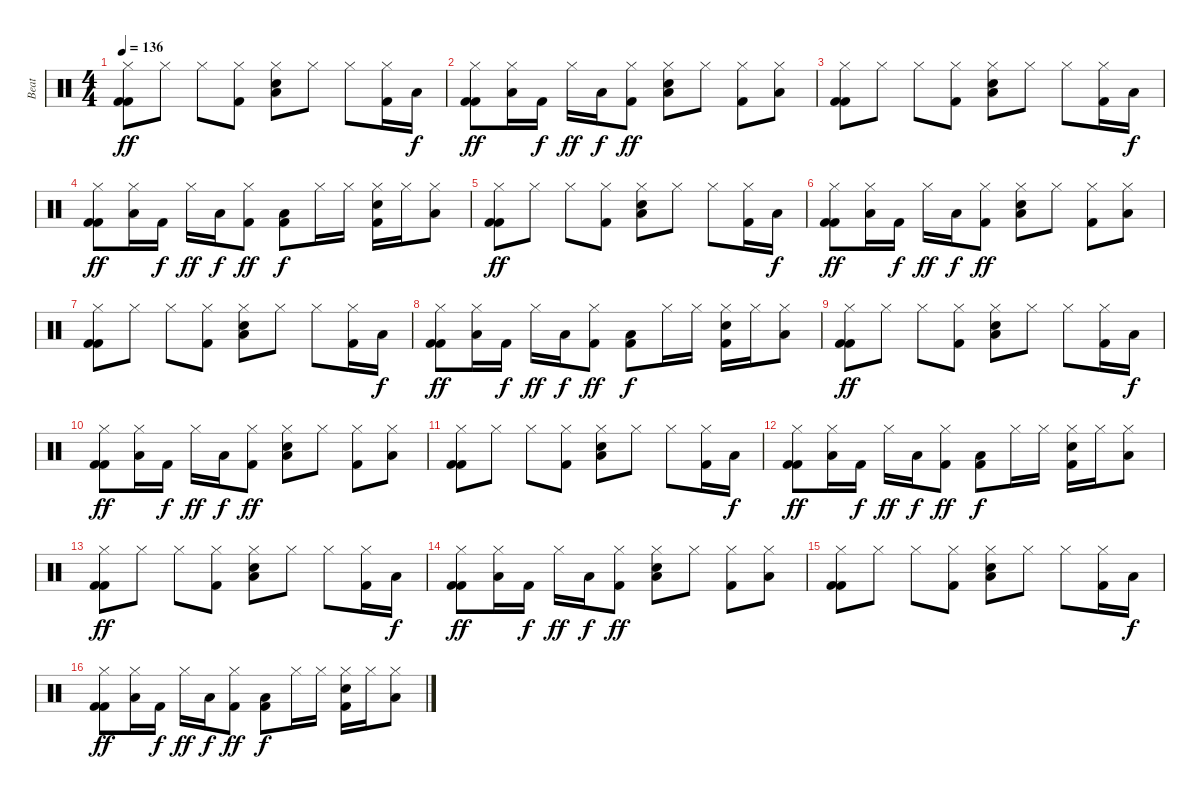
\track ("Beat" "Beat") {instrument percussion}
\staff {score}
\articulation defaults
\ts (4 4)
\tempo 136
\clef neutral
\ks c
("Kick (hit) 2" "Hi-Hat (closed)" "Kick (hit) 2").8{dy ff} "Hi-Hat (closed)".8 "Hi-Hat (closed)".8 ("Hi-Hat (closed)" "Kick (hit) 2").8 ("Snare (hit) 2" "Hi-Hat (closed)" "Low Tom (hit)").8 "Hi-Hat (closed)".8 "Hi-Hat (closed)".8 ("Hi-Hat (closed)" "Kick (hit) 2").16 "Low Tom (hit)".16{dy f} |
("Kick (hit) 2" "Hi-Hat (closed)" "Kick (hit) 2").8{dy ff} ("Hi-Hat (closed)" "Low Tom (hit)").16 "Kick (hit) 2".16{dy f} "Hi-Hat (closed)".16{dy ff} "Low Tom (hit)".16{dy f} ("Hi-Hat (closed)" "Kick (hit) 2").8{dy ff} ("Snare (hit) 2" "Hi-Hat (closed)" "Low Tom (hit)").8 "Hi-Hat (closed)".8 ("Hi-Hat (closed)" "Kick (hit) 2").8 ("Hi-Hat (closed)" "Low Tom (hit)").8 |
("Kick (hit) 2" "Hi-Hat (closed)" "Kick (hit) 2").8 "Hi-Hat (closed)".8 "Hi-Hat (closed)".8 ("Hi-Hat (closed)" "Kick (hit) 2").8 ("Snare (hit) 2" "Hi-Hat (closed)" "Low Tom (hit)").8 "Hi-Hat (closed)".8 "Hi-Hat (closed)".8 ("Hi-Hat (closed)" "Kick (hit) 2").16 "Low Tom (hit)".16{dy f} |
("Kick (hit) 2" "Hi-Hat (closed)" "Kick (hit) 2").8{dy ff} ("Hi-Hat (closed)" "Low Tom (hit)").16 "Kick (hit) 2".16{dy f} "Hi-Hat (closed)".16{dy ff} "Low Tom (hit)".16{dy f} ("Hi-Hat (closed)" "Kick (hit) 2").8{dy ff} ("Kick (hit) 2" "Low Tom (hit)").8{dy f} "Hi-Hat (closed)".16 "Hi-Hat (closed)".16 ("Snare (hit) 2" "Hi-Hat (closed)" "Kick (hit) 2").16 "Hi-Hat (closed)".16 ("Hi-Hat (closed)" "Low Tom (hit)").8 |
("Kick (hit) 2" "Hi-Hat (closed)" "Kick (hit) 2").8{dy ff} "Hi-Hat (closed)".8 "Hi-Hat (closed)".8 ("Hi-Hat (closed)" "Kick (hit) 2").8 ("Snare (hit) 2" "Hi-Hat (closed)" "Low Tom (hit)").8 "Hi-Hat (closed)".8 "Hi-Hat (closed)".8 ("Hi-Hat (closed)" "Kick (hit) 2").16 "Low Tom (hit)".16{dy f} |
("Kick (hit) 2" "Hi-Hat (closed)" "Kick (hit) 2").8{dy ff} ("Hi-Hat (closed)" "Low Tom (hit)").16 "Kick (hit) 2".16{dy f} "Hi-Hat (closed)".16{dy ff} "Low Tom (hit)".16{dy f} ("Hi-Hat (closed)" "Kick (hit) 2").8{dy ff} ("Snare (hit) 2" "Hi-Hat (closed)" "Low Tom (hit)").8 "Hi-Hat (closed)".8 ("Hi-Hat (closed)" "Kick (hit) 2").8 ("Hi-Hat (closed)" "Low Tom (hit)").8 |
("Kick (hit) 2" "Hi-Hat (closed)" "Kick (hit) 2").8 "Hi-Hat (closed)".8 "Hi-Hat (closed)".8 ("Hi-Hat (closed)" "Kick (hit) 2").8 ("Snare (hit) 2" "Hi-Hat (closed)" "Low Tom (hit)").8 "Hi-Hat (closed)".8 "Hi-Hat (closed)".8 ("Hi-Hat (closed)" "Kick (hit) 2").16 "Low Tom (hit)".16{dy f} |
("Kick (hit) 2" "Hi-Hat (closed)" "Kick (hit) 2").8{dy ff} ("Hi-Hat (closed)" "Low Tom (hit)").16 "Kick (hit) 2".16{dy f} "Hi-Hat (closed)".16{dy ff} "Low Tom (hit)".16{dy f} ("Hi-Hat (closed)" "Kick (hit) 2").8{dy ff} ("Kick (hit) 2" "Low Tom (hit)").8{dy f} "Hi-Hat (closed)".16 "Hi-Hat (closed)".16 ("Snare (hit) 2" "Hi-Hat (closed)" "Kick (hit) 2").16 "Hi-Hat (closed)".16 ("Hi-Hat (closed)" "Low Tom (hit)").8 |
("Kick (hit) 2" "Hi-Hat (closed)" "Kick (hit) 2").8{dy ff} "Hi-Hat (closed)".8 "Hi-Hat (closed)".8 ("Hi-Hat (closed)" "Kick (hit) 2").8 ("Snare (hit) 2" "Hi-Hat (closed)" "Low Tom (hit)").8 "Hi-Hat (closed)".8 "Hi-Hat (closed)".8 ("Hi-Hat (closed)" "Kick (hit) 2").16 "Low Tom (hit)".16{dy f} |
("Kick (hit) 2" "Hi-Hat (closed)" "Kick (hit) 2").8{dy ff} ("Hi-Hat (closed)" "Low Tom (hit)").16 "Kick (hit) 2".16{dy f} "Hi-Hat (closed)".16{dy ff} "Low Tom (hit)".16{dy f} ("Hi-Hat (closed)" "Kick (hit) 2").8{dy ff} ("Snare (hit) 2" "Hi-Hat (closed)" "Low Tom (hit)").8 "Hi-Hat (closed)".8 ("Hi-Hat (closed)" "Kick (hit) 2").8 ("Hi-Hat (closed)" "Low Tom (hit)").8 |
("Kick (hit) 2" "Hi-Hat (closed)" "Kick (hit) 2").8 "Hi-Hat (closed)".8 "Hi-Hat (closed)".8 ("Hi-Hat (closed)" "Kick (hit) 2").8 ("Snare (hit) 2" "Hi-Hat (closed)" "Low Tom (hit)").8 "Hi-Hat (closed)".8 "Hi-Hat (closed)".8 ("Hi-Hat (closed)" "Kick (hit) 2").16 "Low Tom (hit)".16{dy f} |
("Kick (hit) 2" "Hi-Hat (closed)" "Kick (hit) 2").8{dy ff} ("Hi-Hat (closed)" "Low Tom (hit)").16 "Kick (hit) 2".16{dy f} "Hi-Hat (closed)".16{dy ff} "Low Tom (hit)".16{dy f} ("Hi-Hat (closed)" "Kick (hit) 2").8{dy ff} ("Kick (hit) 2" "Low Tom (hit)").8{dy f} "Hi-Hat (closed)".16 "Hi-Hat (closed)".16 ("Snare (hit) 2" "Hi-Hat (closed)" "Kick (hit) 2").16 "Hi-Hat (closed)".16 ("Hi-Hat (closed)" "Low Tom (hit)").8 |
("Kick (hit) 2" "Hi-Hat (closed)" "Kick (hit) 2").8{dy ff} "Hi-Hat (closed)".8 "Hi-Hat (closed)".8 ("Hi-Hat (closed)" "Kick (hit) 2").8 ("Snare (hit) 2" "Hi-Hat (closed)" "Low Tom (hit)").8 "Hi-Hat (closed)".8 "Hi-Hat (closed)".8 ("Hi-Hat (closed)" "Kick (hit) 2").16 "Low Tom (hit)".16{dy f} |
("Kick (hit) 2" "Hi-Hat (closed)" "Kick (hit) 2").8{dy ff} ("Hi-Hat (closed)" "Low Tom (hit)").16 "Kick (hit) 2".16{dy f} "Hi-Hat (closed)".16{dy ff} "Low Tom (hit)".16{dy f} ("Hi-Hat (closed)" "Kick (hit) 2").8{dy ff} ("Snare (hit) 2" "Hi-Hat (closed)" "Low Tom (hit)").8 "Hi-Hat (closed)".8 ("Hi-Hat (closed)" "Kick (hit) 2").8 ("Hi-Hat (closed)" "Low Tom (hit)").8 |
("Kick (hit) 2" "Hi-Hat (closed)" "Kick (hit) 2").8 "Hi-Hat (closed)".8 "Hi-Hat (closed)".8 ("Hi-Hat (closed)" "Kick (hit) 2").8 ("Snare (hit) 2" "Hi-Hat (closed)" "Low Tom (hit)").8 "Hi-Hat (closed)".8 "Hi-Hat (closed)".8 ("Hi-Hat (closed)" "Kick (hit) 2").16 "Low Tom (hit)".16{dy f} |
("Kick (hit) 2" "Hi-Hat (closed)" "Kick (hit) 2").8{dy ff} ("Hi-Hat (closed)" "Low Tom (hit)").16 "Kick (hit) 2".16{dy f} "Hi-Hat (closed)".16{dy ff} "Low Tom (hit)".16{dy f} ("Hi-Hat (closed)" "Kick (hit) 2").8{dy ff} ("Kick (hit) 2" "Low Tom (hit)").8{dy f} "Hi-Hat (closed)".16 "Hi-Hat (closed)".16 ("Snare (hit) 2" "Hi-Hat (closed)" "Kick (hit) 2").16 "Hi-Hat (closed)".16 ("Hi-Hat (closed)" "Low Tom (hit)").8
